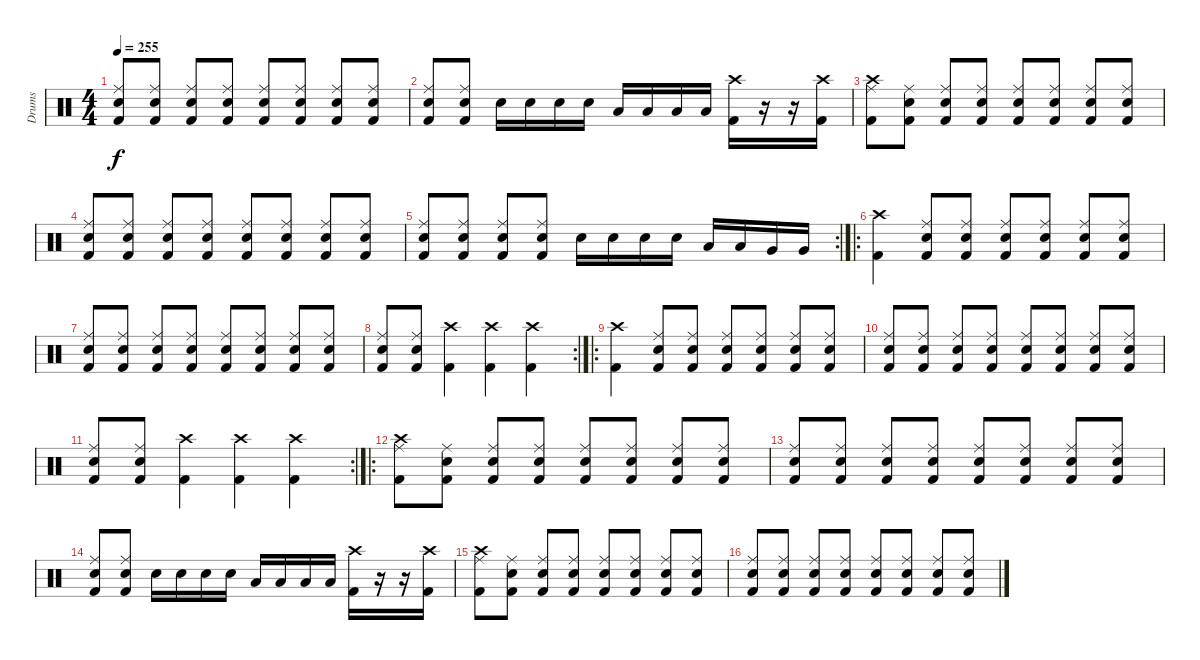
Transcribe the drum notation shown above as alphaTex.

\track ("Drums" "Drums") {instrument percussion}
\staff {score}
\articulation defaults
\ts (4 4)
\tempo 255
\clef neutral
\ks c
("Snare (hit) 2" "Ride (middle)" "Kick (hit) 2").8{dy f} ("Snare (hit) 2" "Ride (middle)" "Kick (hit) 2").8 ("Snare (hit) 2" "Ride (middle)" "Kick (hit) 2").8 ("Snare (hit) 2" "Ride (middle)" "Kick (hit) 2").8 ("Snare (hit) 2" "Ride (middle)" "Kick (hit) 2").8 ("Snare (hit) 2" "Ride (middle)" "Kick (hit) 2").8 ("Snare (hit) 2" "Ride (middle)" "Kick (hit) 2").8 ("Snare (hit) 2" "Ride (middle)" "Kick (hit) 2").8 |
("Snare (hit) 2" "Ride (middle)" "Kick (hit) 2").8 ("Snare (hit) 2" "Ride (middle)" "Kick (hit) 2").8 "Snare (hit) 2".16 "Snare (hit) 2".16 "Snare (hit) 2".16 "Snare (hit) 2".16 "Low Floor Tom (hit)".16 "Low Floor Tom (hit)".16 "Low Floor Tom (hit)".16 "Low Floor Tom (hit)".16 ("Crash high (hit)" "Kick (hit) 2").16 r.16 r.16 ("Crash high (hit)" "Kick (hit) 2").16 |
("Crash high (hit)" "Ride (middle)" "Kick (hit) 2").8 ("Snare (hit) 2" "Ride (middle)" "Kick (hit) 2").8 ("Snare (hit) 2" "Ride (middle)" "Kick (hit) 2").8 ("Snare (hit) 2" "Ride (middle)" "Kick (hit) 2").8 ("Snare (hit) 2" "Ride (middle)" "Kick (hit) 2").8 ("Snare (hit) 2" "Ride (middle)" "Kick (hit) 2").8 ("Snare (hit) 2" "Ride (middle)" "Kick (hit) 2").8 ("Snare (hit) 2" "Ride (middle)" "Kick (hit) 2").8 |
("Snare (hit) 2" "Ride (middle)" "Kick (hit) 2").8 ("Snare (hit) 2" "Ride (middle)" "Kick (hit) 2").8 ("Snare (hit) 2" "Ride (middle)" "Kick (hit) 2").8 ("Snare (hit) 2" "Ride (middle)" "Kick (hit) 2").8 ("Snare (hit) 2" "Ride (middle)" "Kick (hit) 2").8 ("Snare (hit) 2" "Ride (middle)" "Kick (hit) 2").8 ("Snare (hit) 2" "Ride (middle)" "Kick (hit) 2").8 ("Snare (hit) 2" "Ride (middle)" "Kick (hit) 2").8 |
\rc 2
("Snare (hit) 2" "Ride (middle)" "Kick (hit) 2").8 ("Snare (hit) 2" "Ride (middle)" "Kick (hit) 2").8 ("Snare (hit) 2" "Ride (middle)" "Kick (hit) 2").8 ("Snare (hit) 2" "Ride (middle)" "Kick (hit) 2").8 "Snare (hit) 2".16 "Snare (hit) 2".16 "Snare (hit) 2".16 "Snare (hit) 2".16 "Low Floor Tom (hit)".16 "Low Floor Tom (hit)".16 "Very Low Tom (hit)".16 "Very Low Tom (hit)".16 |
\ro
("Crash high (hit)" "Kick (hit) 2").4 ("Snare (hit) 2" "Ride (middle)" "Kick (hit) 2").8 ("Snare (hit) 2" "Ride (middle)" "Kick (hit) 2").8 ("Snare (hit) 2" "Ride (middle)" "Kick (hit) 2").8 ("Snare (hit) 2" "Ride (middle)" "Kick (hit) 2").8 ("Snare (hit) 2" "Ride (middle)" "Kick (hit) 2").8 ("Snare (hit) 2" "Ride (middle)" "Kick (hit) 2").8 |
("Snare (hit) 2" "Ride (middle)" "Kick (hit) 2").8 ("Snare (hit) 2" "Ride (middle)" "Kick (hit) 2").8 ("Snare (hit) 2" "Ride (middle)" "Kick (hit) 2").8 ("Snare (hit) 2" "Ride (middle)" "Kick (hit) 2").8 ("Snare (hit) 2" "Ride (middle)" "Kick (hit) 2").8 ("Snare (hit) 2" "Ride (middle)" "Kick (hit) 2").8 ("Snare (hit) 2" "Ride (middle)" "Kick (hit) 2").8 ("Snare (hit) 2" "Ride (middle)" "Kick (hit) 2").8 |
\rc 2
("Snare (hit) 2" "Ride (middle)" "Kick (hit) 2").8 ("Snare (hit) 2" "Ride (middle)" "Kick (hit) 2").8 ("Crash high (hit)" "Kick (hit) 2").4 ("Crash high (hit)" "Kick (hit) 2").4 ("Crash high (hit)" "Kick (hit) 2").4 |
\ro
("Crash high (hit)" "Kick (hit) 2").4 ("Snare (hit) 2" "Ride (middle)" "Kick (hit) 2").8 ("Snare (hit) 2" "Ride (middle)" "Kick (hit) 2").8 ("Snare (hit) 2" "Ride (middle)" "Kick (hit) 2").8 ("Snare (hit) 2" "Ride (middle)" "Kick (hit) 2").8 ("Snare (hit) 2" "Ride (middle)" "Kick (hit) 2").8 ("Snare (hit) 2" "Ride (middle)" "Kick (hit) 2").8 |
("Snare (hit) 2" "Ride (middle)" "Kick (hit) 2").8 ("Snare (hit) 2" "Ride (middle)" "Kick (hit) 2").8 ("Snare (hit) 2" "Ride (middle)" "Kick (hit) 2").8 ("Snare (hit) 2" "Ride (middle)" "Kick (hit) 2").8 ("Snare (hit) 2" "Ride (middle)" "Kick (hit) 2").8 ("Snare (hit) 2" "Ride (middle)" "Kick (hit) 2").8 ("Snare (hit) 2" "Ride (middle)" "Kick (hit) 2").8 ("Snare (hit) 2" "Ride (middle)" "Kick (hit) 2").8 |
\rc 2
("Snare (hit) 2" "Ride (middle)" "Kick (hit) 2").8 ("Snare (hit) 2" "Ride (middle)" "Kick (hit) 2").8 ("Crash high (hit)" "Kick (hit) 2").4 ("Crash high (hit)" "Kick (hit) 2").4 ("Crash high (hit)" "Kick (hit) 2").4 |
\ro
("Crash high (hit)" "Ride (middle)" "Kick (hit) 2").8 ("Snare (hit) 2" "Ride (middle)" "Kick (hit) 2").8 ("Snare (hit) 2" "Ride (middle)" "Kick (hit) 2").8 ("Snare (hit) 2" "Ride (middle)" "Kick (hit) 2").8 ("Snare (hit) 2" "Ride (middle)" "Kick (hit) 2").8 ("Snare (hit) 2" "Ride (middle)" "Kick (hit) 2").8 ("Snare (hit) 2" "Ride (middle)" "Kick (hit) 2").8 ("Snare (hit) 2" "Ride (middle)" "Kick (hit) 2").8 |
("Snare (hit) 2" "Ride (middle)" "Kick (hit) 2").8 ("Snare (hit) 2" "Ride (middle)" "Kick (hit) 2").8 ("Snare (hit) 2" "Ride (middle)" "Kick (hit) 2").8 ("Snare (hit) 2" "Ride (middle)" "Kick (hit) 2").8 ("Snare (hit) 2" "Ride (middle)" "Kick (hit) 2").8 ("Snare (hit) 2" "Ride (middle)" "Kick (hit) 2").8 ("Snare (hit) 2" "Ride (middle)" "Kick (hit) 2").8 ("Snare (hit) 2" "Ride (middle)" "Kick (hit) 2").8 |
("Snare (hit) 2" "Ride (middle)" "Kick (hit) 2").8 ("Snare (hit) 2" "Ride (middle)" "Kick (hit) 2").8 "Snare (hit) 2".16 "Snare (hit) 2".16 "Snare (hit) 2".16 "Snare (hit) 2".16 "Low Floor Tom (hit)".16 "Low Floor Tom (hit)".16 "Low Floor Tom (hit)".16 "Low Floor Tom (hit)".16 ("Crash high (hit)" "Kick (hit) 2").16 r.16 r.16 ("Crash high (hit)" "Kick (hit) 2").16 |
("Crash high (hit)" "Ride (middle)" "Kick (hit) 2").8 ("Snare (hit) 2" "Ride (middle)" "Kick (hit) 2").8 ("Snare (hit) 2" "Ride (middle)" "Kick (hit) 2").8 ("Snare (hit) 2" "Ride (middle)" "Kick (hit) 2").8 ("Snare (hit) 2" "Ride (middle)" "Kick (hit) 2").8 ("Snare (hit) 2" "Ride (middle)" "Kick (hit) 2").8 ("Snare (hit) 2" "Ride (middle)" "Kick (hit) 2").8 ("Snare (hit) 2" "Ride (middle)" "Kick (hit) 2").8 |
("Snare (hit) 2" "Ride (middle)" "Kick (hit) 2").8 ("Snare (hit) 2" "Ride (middle)" "Kick (hit) 2").8 ("Snare (hit) 2" "Ride (middle)" "Kick (hit) 2").8 ("Snare (hit) 2" "Ride (middle)" "Kick (hit) 2").8 ("Snare (hit) 2" "Ride (middle)" "Kick (hit) 2").8 ("Snare (hit) 2" "Ride (middle)" "Kick (hit) 2").8 ("Snare (hit) 2" "Ride (middle)" "Kick (hit) 2").8 ("Snare (hit) 2" "Ride (middle)" "Kick (hit) 2").8
